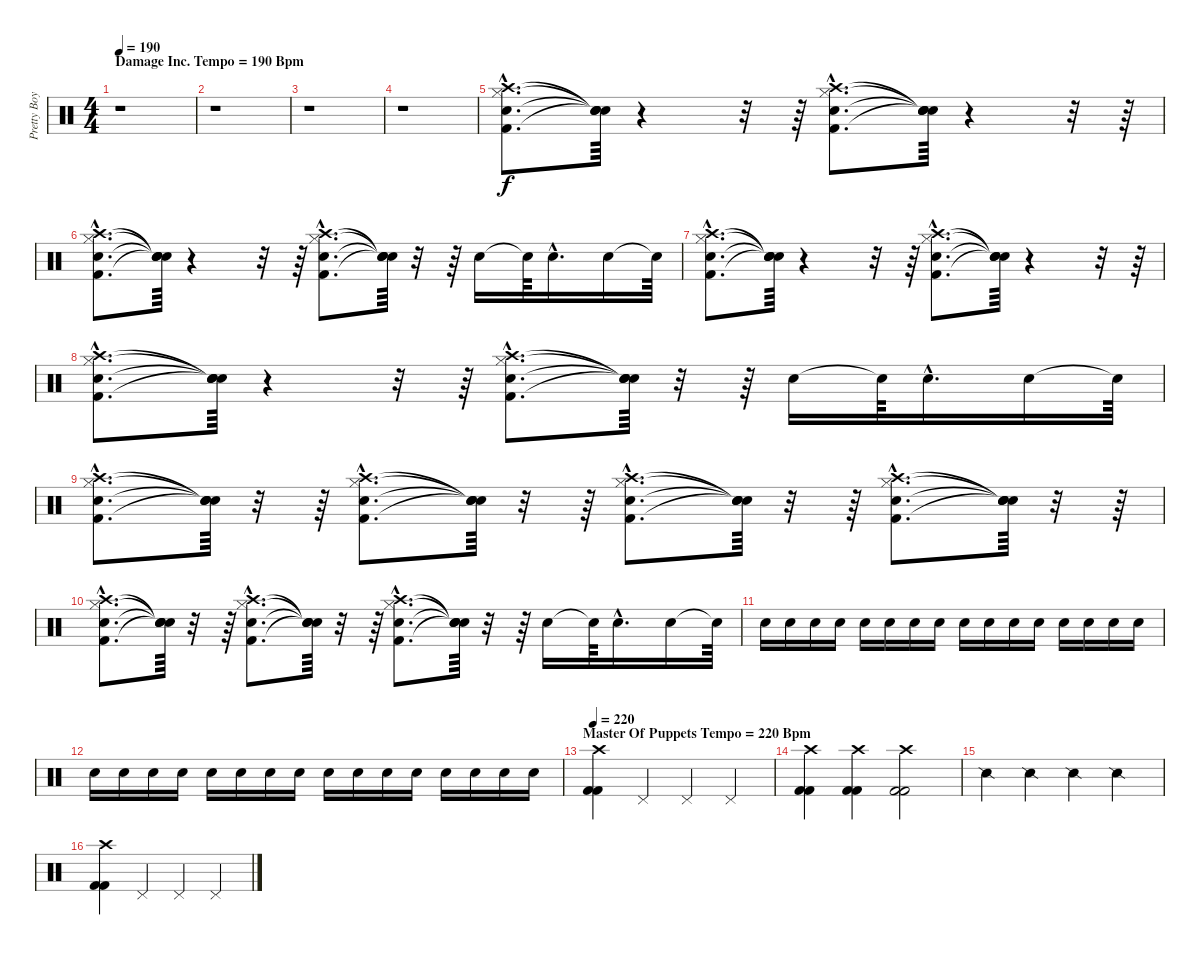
\track ("Pretty Boy Geoff (Lars Drums)" "Pretty Boy") {instrument percussion}
\staff {score}
\articulation defaults
\ts (4 4)
\section ("" "Damage Inc. Tempo = 190 Bpm")
\tempo 190
\clef neutral
\ks c
r.1{dy f} |
r.1 |
r.1 |
r.1 |
("Kick (hit) 2"{hac} "Snare (hit) 2"{hac} "Hi-Hat (closed)"{hac} "Crash high (hit)"{hac}).8{d} ("Snare (hit)"{t} "Snare (hit)"{t} "Snare (hit)"{t} "Snare (hit)"{t}).64 r.4 r.32 r.64 ("Kick (hit) 2"{hac} "Snare (hit) 2"{hac} "Hi-Hat (closed)"{hac} "Crash high (hit)"{hac}).8{d} ("Snare (hit)"{t} "Snare (hit)"{t} "Snare (hit)"{t} "Snare (hit)"{t}).64 r.4 r.32 r.64 |
("Kick (hit) 2"{hac} "Snare (hit) 2"{hac} "Hi-Hat (closed)"{hac} "Crash high (hit)"{hac}).8{d} ("Snare (hit)"{t} "Snare (hit)"{t} "Snare (hit)"{t} "Snare (hit)"{t}).64 r.4 r.32 r.64 ("Kick (hit) 2"{hac} "Snare (hit) 2"{hac} "Hi-Hat (closed)"{hac} "Crash high (hit)"{hac}).8{d} ("Snare (hit)"{t} "Snare (hit)"{t} "Snare (hit)"{t} "Snare (hit)"{t}).64 r.32 r.64 "Snare (hit) 2".16 "Snare (hit)"{t}.64 "Snare (hit) 2"{hac}.16{d} "Snare (hit) 2".16 "Snare (hit)"{t}.64 |
("Kick (hit) 2"{hac} "Snare (hit) 2"{hac} "Hi-Hat (closed)"{hac} "Crash high (hit)"{hac}).8{d} ("Snare (hit)"{t} "Snare (hit)"{t} "Snare (hit)"{t} "Snare (hit)"{t}).64 r.4 r.32 r.64 ("Kick (hit) 2"{hac} "Snare (hit) 2"{hac} "Hi-Hat (closed)"{hac} "Crash high (hit)"{hac}).8{d} ("Snare (hit)"{t} "Snare (hit)"{t} "Snare (hit)"{t} "Snare (hit)"{t}).64 r.4 r.32 r.64 |
("Kick (hit) 2"{hac} "Snare (hit) 2"{hac} "Hi-Hat (closed)"{hac} "Crash high (hit)"{hac}).8{d} ("Snare (hit)"{t} "Snare (hit)"{t} "Snare (hit)"{t} "Snare (hit)"{t}).64 r.4 r.32 r.64 ("Kick (hit) 2"{hac} "Snare (hit) 2"{hac} "Hi-Hat (closed)"{hac} "Crash high (hit)"{hac}).8{d} ("Snare (hit)"{t} "Snare (hit)"{t} "Snare (hit)"{t} "Snare (hit)"{t}).64 r.32 r.64 "Snare (hit) 2".16 "Snare (hit)"{t}.64 "Snare (hit) 2"{hac}.16{d} "Snare (hit) 2".16 "Snare (hit)"{t}.64 |
("Kick (hit) 2"{hac} "Snare (hit) 2"{hac} "Hi-Hat (closed)"{hac} "Crash high (hit)"{hac}).8{d} ("Snare (hit)"{t} "Snare (hit)"{t} "Snare (hit)"{t} "Snare (hit)"{t}).64 r.32 r.64 ("Kick (hit) 2"{hac} "Snare (hit) 2"{hac} "Hi-Hat (closed)"{hac} "Crash high (hit)"{hac}).8{d} ("Snare (hit)"{t} "Snare (hit)"{t} "Snare (hit)"{t} "Snare (hit)"{t}).64 r.32 r.64 ("Kick (hit) 2"{hac} "Snare (hit) 2"{hac} "Hi-Hat (closed)"{hac} "Crash high (hit)"{hac}).8{d} ("Snare (hit)"{t} "Snare (hit)"{t} "Snare (hit)"{t} "Snare (hit)"{t}).64 r.32 r.64 ("Kick (hit) 2"{hac} "Snare (hit) 2"{hac} "Hi-Hat (closed)"{hac} "Crash high (hit)"{hac}).8{d} ("Snare (hit)"{t} "Snare (hit)"{t} "Snare (hit)"{t} "Snare (hit)"{t}).64 r.32 r.64 |
("Kick (hit) 2"{hac} "Snare (hit) 2"{hac} "Hi-Hat (closed)"{hac} "Crash high (hit)"{hac}).8{d} ("Snare (hit)"{t} "Snare (hit)"{t} "Snare (hit)"{t} "Snare (hit)"{t}).64 r.32 r.64 ("Kick (hit) 2"{hac} "Snare (hit) 2"{hac} "Hi-Hat (closed)"{hac} "Crash high (hit)"{hac}).8{d} ("Snare (hit)"{t} "Snare (hit)"{t} "Snare (hit)"{t} "Snare (hit)"{t}).64 r.32 r.64 ("Kick (hit) 2"{hac} "Snare (hit) 2"{hac} "Hi-Hat (closed)"{hac} "Crash high (hit)"{hac}).8{d} ("Snare (hit)"{t} "Snare (hit)"{t} "Snare (hit)"{t} "Snare (hit)"{t}).64 r.32 r.64 "Snare (hit) 2".16 "Snare (hit)"{t}.64 "Snare (hit) 2"{hac}.16{d} "Snare (hit) 2".16 "Snare (hit)"{t}.64 |
"Snare (hit) 2".16 "Snare (hit) 2".16 "Snare (hit) 2".16 "Snare (hit) 2".16 "Snare (hit) 2".16 "Snare (hit) 2".16 "Snare (hit) 2".16 "Snare (hit) 2".16 "Snare (hit) 2".16 "Snare (hit) 2".16 "Snare (hit) 2".16 "Snare (hit) 2".16 "Snare (hit) 2".16 "Snare (hit) 2".16 "Snare (hit) 2".16 "Snare (hit) 2".16 |
"Snare (hit) 2".16 "Snare (hit) 2".16 "Snare (hit) 2".16 "Snare (hit) 2".16 "Snare (hit) 2".16 "Snare (hit) 2".16 "Snare (hit) 2".16 "Snare (hit) 2".16 "Snare (hit) 2".16 "Snare (hit) 2".16 "Snare (hit) 2".16 "Snare (hit) 2".16 "Snare (hit) 2".16 "Snare (hit) 2".16 "Snare (hit) 2".16 "Snare (hit) 2".16 |
\section ("" "Master Of Puppets Tempo = 220 Bpm")
\tempo 220
("Crash high (hit)" "Kick (hit) 2" "Kick (hit) 2").4 "Pedal Hi-Hat (hit)".4 "Pedal Hi-Hat (hit)".4 "Pedal Hi-Hat (hit)".4 |
("Crash high (hit)" "Kick (hit) 2" "Kick (hit) 2").4 ("Crash high (hit)" "Kick (hit) 2" "Kick (hit) 2").4 ("Crash high (hit)" "Kick (hit) 2" "Kick (hit) 2").2 |
"Snare (side stick) 2".4 "Snare (side stick) 2".4 "Snare (side stick) 2".4 "Snare (side stick) 2".4 |
("Crash high (hit)" "Kick (hit) 2" "Kick (hit) 2").4 "Pedal Hi-Hat (hit)".4 "Pedal Hi-Hat (hit)".4 "Pedal Hi-Hat (hit)".4
